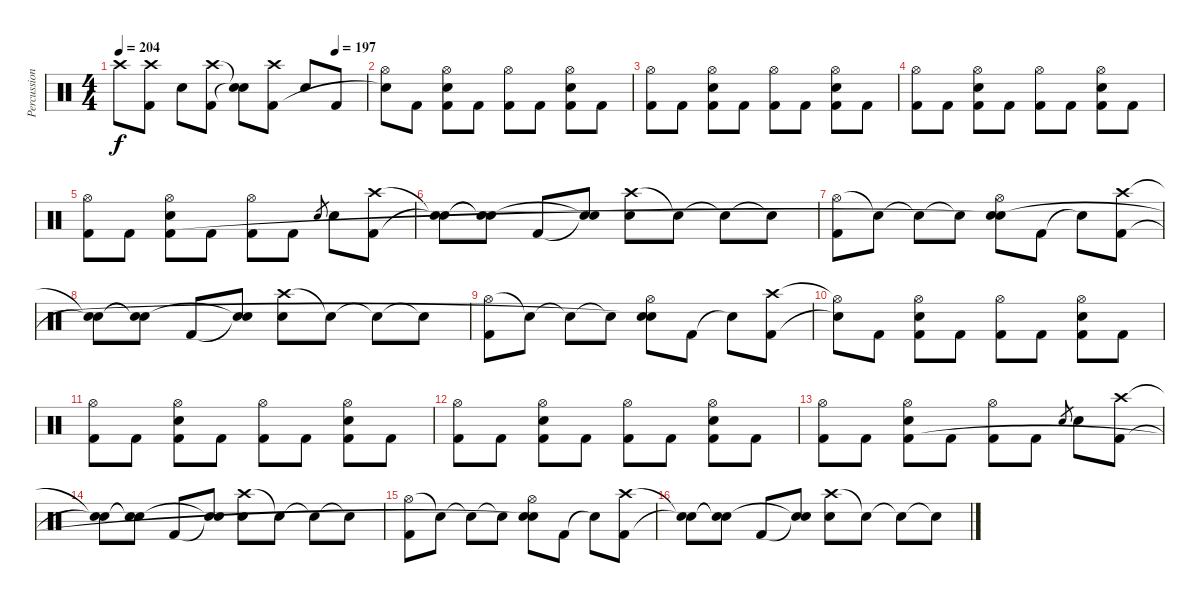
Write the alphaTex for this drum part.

\track ("Percussion" "Percussion") {instrument percussion}
\staff {score}
\articulation defaults
\ts (4 4)
\tempo 204
\tempo (197 0.875)
\clef neutral
\ks c "Crash high (hit)"{t}.8{dy f}
("Crash high (hit)" "Kick (hit) 2").8 "Electric Snare (hit)".8 ("Crash high (hit)" "Kick (hit) 2").8 ("Snare (hit)"{t} "Snare (hit)"{t}).8 ("Crash high (hit)" "Kick (hit) 2").8 "Electric Snare (hit)".8 "Kick (hit) 2".8 |
("Hi-Hat (open)" "Snare (hit)"{t}).8 "Kick (hit) 2".8 ("Hi-Hat (open)" "Electric Snare (hit)" "Kick (hit) 2").8 "Kick (hit) 2".8 ("Hi-Hat (open)" "Kick (hit) 2").8 "Kick (hit) 2".8 ("Hi-Hat (open)" "Electric Snare (hit)" "Kick (hit) 2").8 "Kick (hit) 2".8 |
("Hi-Hat (open)" "Kick (hit) 2").8 "Kick (hit) 2".8 ("Hi-Hat (open)" "Electric Snare (hit)" "Kick (hit) 2").8 "Kick (hit) 2".8 ("Hi-Hat (open)" "Kick (hit) 2").8 "Kick (hit) 2".8 ("Hi-Hat (open)" "Electric Snare (hit)" "Kick (hit) 2").8 "Kick (hit) 2".8 |
("Hi-Hat (open)" "Kick (hit) 2").8 "Kick (hit) 2".8 ("Hi-Hat (open)" "Electric Snare (hit)" "Kick (hit) 2").8 "Kick (hit) 2".8 ("Hi-Hat (open)" "Kick (hit) 2").8 "Kick (hit) 2".8 ("Hi-Hat (open)" "Electric Snare (hit)" "Kick (hit) 2").8 "Kick (hit) 2".8 |
("Hi-Hat (open)" "Kick (hit) 2").8 "Kick (hit) 2".8 ("Hi-Hat (open)" "Electric Snare (hit)" "Kick (hit) 2").8 "Kick (hit) 2".8 ("Hi-Hat (open)" "Kick (hit) 2").8 "Kick (hit) 2".8 "Snare (hit) 2".8{gr} "Electric Snare (hit)".8 ("Crash high (hit)" "Kick (hit) 2").8 |
("Snare (hit)"{t} "Snare (hit)"{t}).8 ("Snare (hit)"{t} "Snare (hit)"{t}).8 "Kick (hit) 2".8 ("Snare (hit)"{t} "Snare (hit)"{t}).8 ("Crash high (hit)" "Electric Snare (hit)").8 "Snare (hit)"{t}.8 "Snare (hit)"{t}.8 "Snare (hit)"{t}.8 |
("Hi-Hat (open)" "Kick (hit) 2").8 "Snare (hit)"{t}.8 "Snare (hit)"{t}.8 "Snare (hit)"{t}.8 ("Hi-Hat (open)" "Electric Snare (hit)" "Snare (hit)"{t}).8 "Kick (hit) 2".8 "Snare (hit)"{t}.8 ("Crash high (hit)" "Kick (hit) 2").8 |
("Snare (hit)"{t} "Snare (hit)"{t}).8 ("Snare (hit)"{t} "Snare (hit)"{t}).8 "Kick (hit) 2".8 ("Snare (hit)"{t} "Snare (hit)"{t}).8 ("Crash high (hit)" "Electric Snare (hit)").8 "Snare (hit)"{t}.8 "Snare (hit)"{t}.8 "Snare (hit)"{t}.8 |
("Hi-Hat (open)" "Kick (hit) 2").8 "Snare (hit)"{t}.8 "Snare (hit)"{t}.8 "Snare (hit)"{t}.8 ("Hi-Hat (open)" "Electric Snare (hit)" "Snare (hit)"{t}).8 "Kick (hit) 2".8 "Snare (hit)"{t}.8 ("Crash high (hit)" "Kick (hit) 2").8 |
("Hi-Hat (open)"{t} "Snare (hit)"{t}).8 "Kick (hit) 2".8 ("Hi-Hat (open)" "Electric Snare (hit)" "Kick (hit) 2").8 "Kick (hit) 2".8 ("Hi-Hat (open)" "Kick (hit) 2").8 "Kick (hit) 2".8 ("Hi-Hat (open)" "Electric Snare (hit)" "Kick (hit) 2").8 "Kick (hit) 2".8 |
("Hi-Hat (open)" "Kick (hit) 2").8 "Kick (hit) 2".8 ("Hi-Hat (open)" "Electric Snare (hit)" "Kick (hit) 2").8 "Kick (hit) 2".8 ("Hi-Hat (open)" "Kick (hit) 2").8 "Kick (hit) 2".8 ("Hi-Hat (open)" "Electric Snare (hit)" "Kick (hit) 2").8 "Kick (hit) 2".8 |
("Hi-Hat (open)" "Kick (hit) 2").8 "Kick (hit) 2".8 ("Hi-Hat (open)" "Electric Snare (hit)" "Kick (hit) 2").8 "Kick (hit) 2".8 ("Hi-Hat (open)" "Kick (hit) 2").8 "Kick (hit) 2".8 ("Hi-Hat (open)" "Electric Snare (hit)" "Kick (hit) 2").8 "Kick (hit) 2".8 |
("Hi-Hat (open)" "Kick (hit) 2").8 "Kick (hit) 2".8 ("Hi-Hat (open)" "Electric Snare (hit)" "Kick (hit) 2").8 "Kick (hit) 2".8 ("Hi-Hat (open)" "Kick (hit) 2").8 "Kick (hit) 2".8 "Snare (hit) 2".8{gr} "Electric Snare (hit)".8 ("Crash high (hit)" "Kick (hit) 2").8 |
("Snare (hit)"{t} "Snare (hit)"{t}).8 ("Snare (hit)"{t} "Snare (hit)"{t}).8 "Kick (hit) 2".8 ("Snare (hit)"{t} "Snare (hit)"{t}).8 ("Crash high (hit)" "Electric Snare (hit)").8 "Snare (hit)"{t}.8 "Snare (hit)"{t}.8 "Snare (hit)"{t}.8 |
("Hi-Hat (open)" "Kick (hit) 2").8 "Snare (hit)"{t}.8 "Snare (hit)"{t}.8 "Snare (hit)"{t}.8 ("Hi-Hat (open)" "Electric Snare (hit)" "Snare (hit)"{t}).8 "Kick (hit) 2".8 "Snare (hit)"{t}.8 ("Crash high (hit)" "Kick (hit) 2").8 |
("Snare (hit)"{t} "Snare (hit)"{t}).8 ("Snare (hit)"{t} "Snare (hit)"{t}).8 "Kick (hit) 2".8 ("Snare (hit)"{t} "Snare (hit)"{t}).8 ("Crash high (hit)" "Electric Snare (hit)").8 "Snare (hit)"{t}.8 "Snare (hit)"{t}.8 "Snare (hit)"{t}.8
